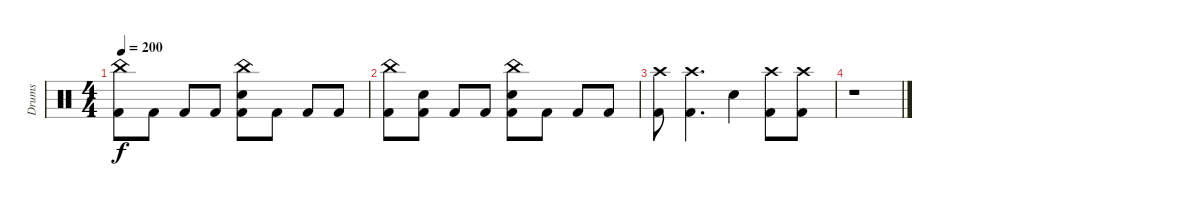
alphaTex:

\track ("Drums" "Drums") {instrument percussion bank 169}
\staff {score}
\articulation defaults
\ts (4 4)
\tempo 200
\clef neutral
\ks c
("China (hit)" "Kick (hit) 2").8{dy f} "Kick (hit) 2".8 "Kick (hit) 2".8 "Kick (hit) 2".8 ("China (hit)" "Snare (hit) 2" "Kick (hit) 2").8 "Kick (hit) 2".8 "Kick (hit) 2".8 "Kick (hit) 2".8 |
("China (hit)" "Kick (hit) 2").8 ("Snare (hit) 2" "Kick (hit) 2").8 "Kick (hit) 2".8 "Kick (hit) 2".8 ("China (hit)" "Snare (hit) 2" "Kick (hit) 2").8 "Kick (hit) 2".8 "Kick (hit) 2".8 "Kick (hit) 2".8 |
("Crash high (hit)"{x} "Kick (hit) 2").8 ("Crash high (hit)"{x} "Kick (hit) 2").4{d} "Snare (hit) 2".4 ("Crash high (hit)"{x} "Kick (hit) 2").8 ("Crash high (hit)"{x} "Kick (hit) 2").8 |
r.1
